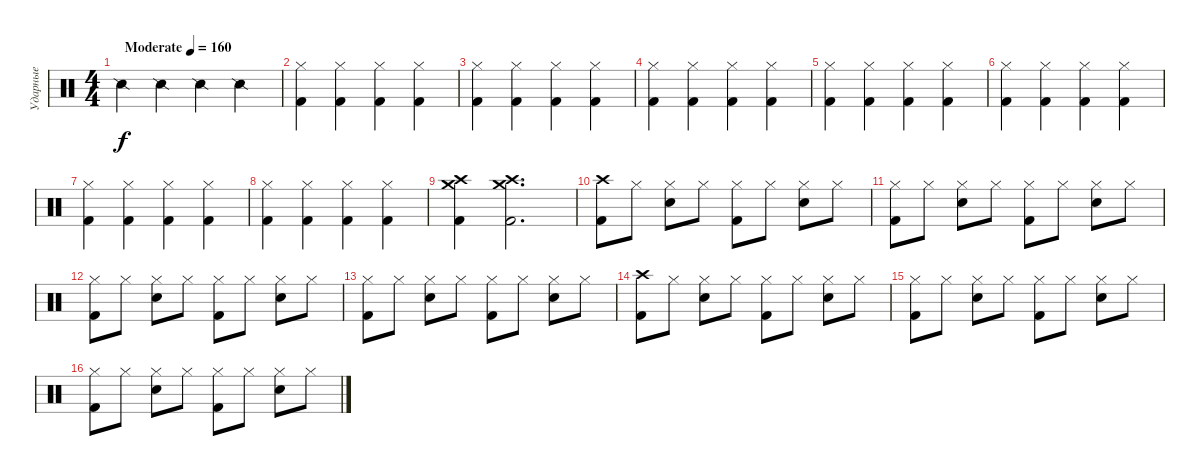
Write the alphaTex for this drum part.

\track ("Ударные" "Ударные") {instrument percussion}
\staff {score}
\articulation defaults
\ts (4 4)
\tempo (160 "Moderate")
\clef neutral
\ks c "Snare (side stick) 2".4{dy f} "Snare (side stick) 2".4 "Snare (side stick) 2".4 "Snare (side stick) 2".4
|
("Hi-Hat (closed)" "Kick (hit) 2").4 ("Hi-Hat (closed)" "Kick (hit) 2").4 ("Hi-Hat (closed)" "Kick (hit) 2").4 ("Hi-Hat (closed)" "Kick (hit) 2").4 |
("Hi-Hat (closed)" "Kick (hit) 2").4 ("Hi-Hat (closed)" "Kick (hit) 2").4 ("Hi-Hat (closed)" "Kick (hit) 2").4 ("Hi-Hat (closed)" "Kick (hit) 2").4 |
("Hi-Hat (closed)" "Kick (hit) 2").4 ("Hi-Hat (closed)" "Kick (hit) 2").4 ("Hi-Hat (closed)" "Kick (hit) 2").4 ("Hi-Hat (closed)" "Kick (hit) 2").4 |
("Hi-Hat (closed)" "Kick (hit) 2").4 ("Hi-Hat (closed)" "Kick (hit) 2").4 ("Hi-Hat (closed)" "Kick (hit) 2").4 ("Hi-Hat (closed)" "Kick (hit) 2").4 |
("Hi-Hat (closed)" "Kick (hit) 2").4 ("Hi-Hat (closed)" "Kick (hit) 2").4 ("Hi-Hat (closed)" "Kick (hit) 2").4 ("Hi-Hat (closed)" "Kick (hit) 2").4 |
("Hi-Hat (closed)" "Kick (hit) 2").4 ("Hi-Hat (closed)" "Kick (hit) 2").4 ("Hi-Hat (closed)" "Kick (hit) 2").4 ("Hi-Hat (closed)" "Kick (hit) 2").4 |
("Hi-Hat (closed)" "Kick (hit) 2").4 ("Hi-Hat (closed)" "Kick (hit) 2").4 ("Hi-Hat (closed)" "Kick (hit) 2").4 ("Hi-Hat (closed)" "Kick (hit) 2").4 |
("Crash high (hit)" "Crash medium (hit)" "Kick (hit) 2").4 ("Crash high (hit)" "Crash medium (hit)" "Kick (hit) 2").2{d} |
("Crash high (hit)" "Kick (hit) 2").8 "Hi-Hat (closed)".8 ("Hi-Hat (closed)" "Snare (hit) 2").8 "Hi-Hat (closed)".8 ("Hi-Hat (closed)" "Kick (hit) 2").8 "Hi-Hat (closed)".8 ("Hi-Hat (closed)" "Snare (hit) 2").8 "Hi-Hat (closed)".8 |
("Hi-Hat (closed)" "Kick (hit) 2").8 "Hi-Hat (closed)".8 ("Hi-Hat (closed)" "Snare (hit) 2").8 "Hi-Hat (closed)".8 ("Hi-Hat (closed)" "Kick (hit) 2").8 "Hi-Hat (closed)".8 ("Hi-Hat (closed)" "Snare (hit) 2").8 "Hi-Hat (closed)".8 |
("Hi-Hat (closed)" "Kick (hit) 2").8 "Hi-Hat (closed)".8 ("Hi-Hat (closed)" "Snare (hit) 2").8 "Hi-Hat (closed)".8 ("Hi-Hat (closed)" "Kick (hit) 2").8 "Hi-Hat (closed)".8 ("Hi-Hat (closed)" "Snare (hit) 2").8 "Hi-Hat (closed)".8 |
("Hi-Hat (closed)" "Kick (hit) 2").8 "Hi-Hat (closed)".8 ("Hi-Hat (closed)" "Snare (hit) 2").8 "Hi-Hat (closed)".8 ("Hi-Hat (closed)" "Kick (hit) 2").8 "Hi-Hat (closed)".8 ("Hi-Hat (closed)" "Snare (hit) 2").8 "Hi-Hat (closed)".8 |
("Crash high (hit)" "Kick (hit) 2").8 "Hi-Hat (closed)".8 ("Hi-Hat (closed)" "Snare (hit) 2").8 "Hi-Hat (closed)".8 ("Hi-Hat (closed)" "Kick (hit) 2").8 "Hi-Hat (closed)".8 ("Hi-Hat (closed)" "Snare (hit) 2").8 "Hi-Hat (closed)".8 |
("Hi-Hat (closed)" "Kick (hit) 2").8 "Hi-Hat (closed)".8 ("Hi-Hat (closed)" "Snare (hit) 2").8 "Hi-Hat (closed)".8 ("Hi-Hat (closed)" "Kick (hit) 2").8 "Hi-Hat (closed)".8 ("Hi-Hat (closed)" "Snare (hit) 2").8 "Hi-Hat (closed)".8 |
("Hi-Hat (closed)" "Kick (hit) 2").8 "Hi-Hat (closed)".8 ("Hi-Hat (closed)" "Snare (hit) 2").8 "Hi-Hat (closed)".8 ("Hi-Hat (closed)" "Kick (hit) 2").8 "Hi-Hat (closed)".8 ("Hi-Hat (closed)" "Snare (hit) 2").8 "Hi-Hat (closed)".8
